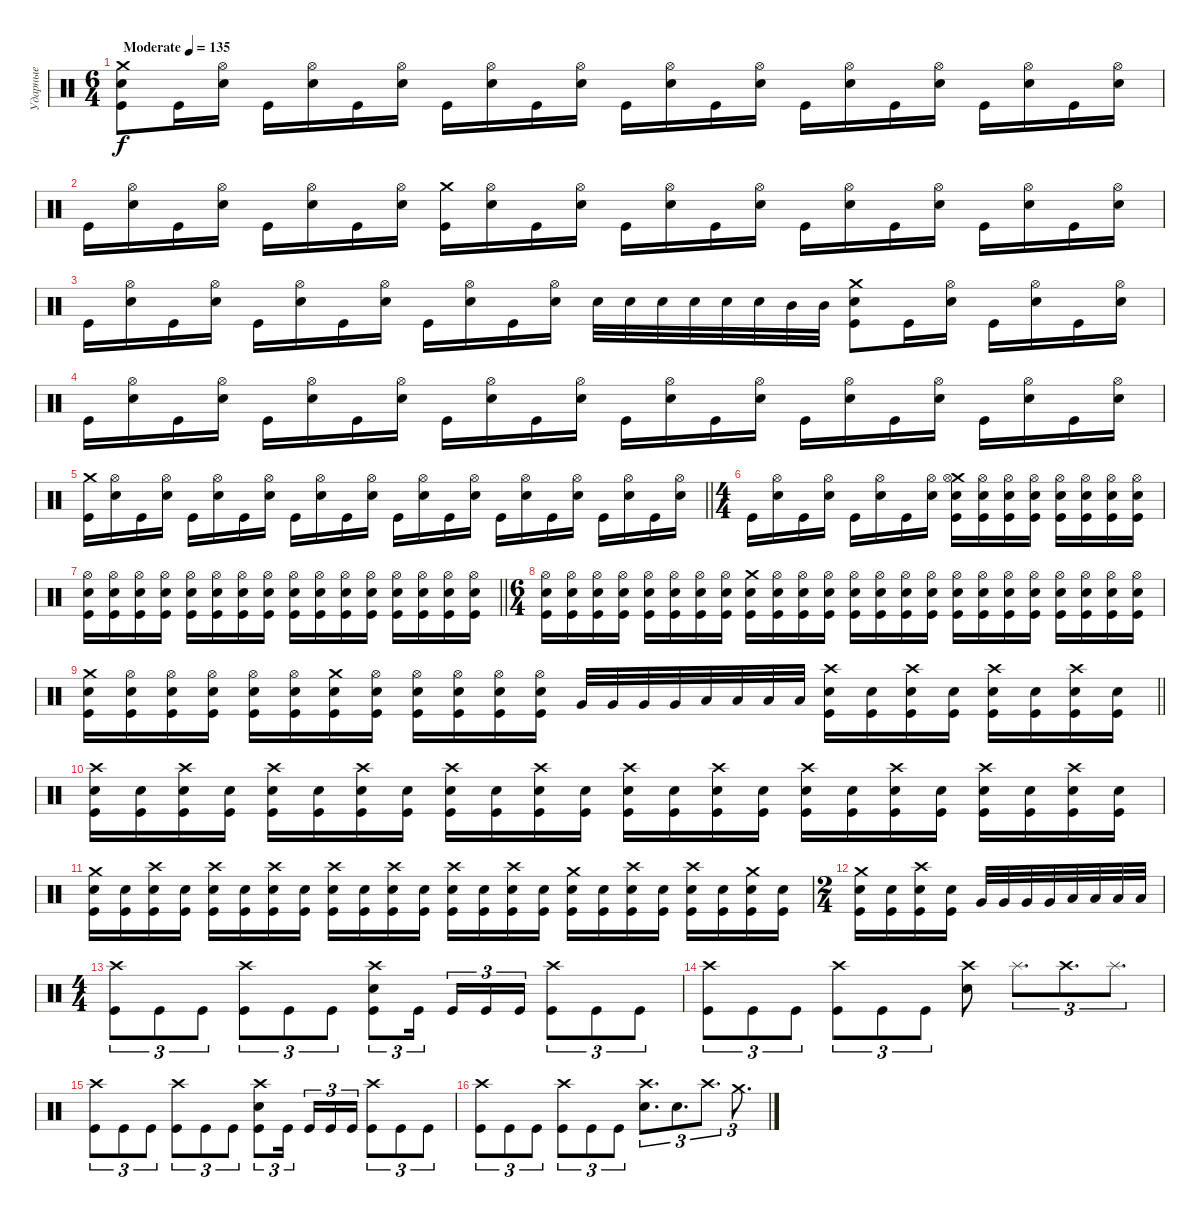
\track ("Ударные" "Ударные") {instrument percussion}
\staff {score}
\articulation defaults
\ts (6 4)
\tempo (135 "Moderate")
\clef neutral
\ks c
("Kick (hit)" "Snare (hit) 2" "Crash medium (hit)").8{dy f} "Kick (hit)".16 ("Hi-Hat (open)" "Snare (hit) 2").16 "Kick (hit)".16 ("Hi-Hat (open)" "Snare (hit) 2").16 "Kick (hit)".16 ("Hi-Hat (open)" "Snare (hit) 2").16 "Kick (hit)".16 ("Hi-Hat (open)" "Snare (hit) 2").16 "Kick (hit)".16 ("Hi-Hat (open)" "Snare (hit) 2").16 "Kick (hit)".16 ("Hi-Hat (open)" "Snare (hit) 2").16 "Kick (hit)".16 ("Hi-Hat (open)" "Snare (hit) 2").16 "Kick (hit)".16 ("Hi-Hat (open)" "Snare (hit) 2").16 "Kick (hit)".16 ("Hi-Hat (open)" "Snare (hit) 2").16 "Kick (hit)".16 ("Hi-Hat (open)" "Snare (hit) 2").16 "Kick (hit)".16 ("Hi-Hat (open)" "Snare (hit) 2").16 |
"Kick (hit)".16 ("Hi-Hat (open)" "Snare (hit) 2").16 "Kick (hit)".16 ("Hi-Hat (open)" "Snare (hit) 2").16 "Kick (hit)".16 ("Hi-Hat (open)" "Snare (hit) 2").16 "Kick (hit)".16 ("Hi-Hat (open)" "Snare (hit) 2").16 ("Crash medium (hit)" "Kick (hit)").16 ("Hi-Hat (open)" "Snare (hit) 2").16 "Kick (hit)".16 ("Hi-Hat (open)" "Snare (hit) 2").16 "Kick (hit)".16 ("Hi-Hat (open)" "Snare (hit) 2").16 "Kick (hit)".16 ("Hi-Hat (open)" "Snare (hit) 2").16 "Kick (hit)".16 ("Hi-Hat (open)" "Snare (hit) 2").16 "Kick (hit)".16 ("Hi-Hat (open)" "Snare (hit) 2").16 "Kick (hit)".16 ("Hi-Hat (open)" "Snare (hit) 2").16 "Kick (hit)".16 ("Hi-Hat (open)" "Snare (hit) 2").16 |
"Kick (hit)".16 ("Hi-Hat (open)" "Snare (hit) 2").16 "Kick (hit)".16 ("Hi-Hat (open)" "Snare (hit) 2").16 "Kick (hit)".16 ("Hi-Hat (open)" "Snare (hit) 2").16 "Kick (hit)".16 ("Hi-Hat (open)" "Snare (hit) 2").16 "Kick (hit)".16 ("Hi-Hat (open)" "Snare (hit) 2").16 "Kick (hit)".16 ("Hi-Hat (open)" "Snare (hit) 2").16 "Snare (hit) 2".32 "Snare (hit) 2".32 "Snare (hit) 2".32 "Snare (hit) 2".32 "Snare (hit) 2".32 "Snare (hit) 2".32 "Mid Tom (hit)".32 "Mid Tom (hit)".32 ("Kick (hit)" "Snare (hit) 2" "Crash medium (hit)").8 "Kick (hit)".16 ("Hi-Hat (open)" "Snare (hit) 2").16 "Kick (hit)".16 ("Hi-Hat (open)" "Snare (hit) 2").16 "Kick (hit)".16 ("Hi-Hat (open)" "Snare (hit) 2").16 |
"Kick (hit)".16 ("Hi-Hat (open)" "Snare (hit) 2").16 "Kick (hit)".16 ("Hi-Hat (open)" "Snare (hit) 2").16 "Kick (hit)".16 ("Hi-Hat (open)" "Snare (hit) 2").16 "Kick (hit)".16 ("Hi-Hat (open)" "Snare (hit) 2").16 "Kick (hit)".16 ("Hi-Hat (open)" "Snare (hit) 2").16 "Kick (hit)".16 ("Hi-Hat (open)" "Snare (hit) 2").16 "Kick (hit)".16 ("Hi-Hat (open)" "Snare (hit) 2").16 "Kick (hit)".16 ("Hi-Hat (open)" "Snare (hit) 2").16 "Kick (hit)".16 ("Hi-Hat (open)" "Snare (hit) 2").16 "Kick (hit)".16 ("Hi-Hat (open)" "Snare (hit) 2").16 "Kick (hit)".16 ("Hi-Hat (open)" "Snare (hit) 2").16 "Kick (hit)".16 ("Hi-Hat (open)" "Snare (hit) 2").16 |
\barLineRight lightlight
("Crash medium (hit)" "Kick (hit)").16 ("Hi-Hat (open)" "Snare (hit) 2").16 "Kick (hit)".16 ("Hi-Hat (open)" "Snare (hit) 2").16 "Kick (hit)".16 ("Hi-Hat (open)" "Snare (hit) 2").16 "Kick (hit)".16 ("Hi-Hat (open)" "Snare (hit) 2").16 "Kick (hit)".16 ("Hi-Hat (open)" "Snare (hit) 2").16 "Kick (hit)".16 ("Hi-Hat (open)" "Snare (hit) 2").16 "Kick (hit)".16 ("Hi-Hat (open)" "Snare (hit) 2").16 "Kick (hit)".16 ("Hi-Hat (open)" "Snare (hit) 2").16 "Kick (hit)".16 ("Hi-Hat (open)" "Snare (hit) 2").16 "Kick (hit)".16 ("Hi-Hat (open)" "Snare (hit) 2").16 "Kick (hit)".16 ("Hi-Hat (open)" "Snare (hit) 2").16 "Kick (hit)".16 ("Hi-Hat (open)" "Snare (hit) 2").16 |
\ts (4 4)
"Kick (hit)".16 ("Hi-Hat (open)" "Snare (hit) 2").16 "Kick (hit)".16 ("Hi-Hat (open)" "Snare (hit) 2").16 "Kick (hit)".16 ("Hi-Hat (open)" "Snare (hit) 2").16 "Kick (hit)".16 ("Hi-Hat (open)" "Snare (hit) 2").16 ("Crash medium (hit)" "Kick (hit)" "Snare (hit) 2" "Hi-Hat (open)").16 ("Kick (hit)" "Snare (hit) 2" "Hi-Hat (open)").16 ("Kick (hit)" "Snare (hit) 2" "Hi-Hat (open)").16 ("Kick (hit)" "Snare (hit) 2" "Hi-Hat (open)").16 ("Kick (hit)" "Snare (hit) 2" "Hi-Hat (open)").16 ("Kick (hit)" "Snare (hit) 2" "Hi-Hat (open)").16 ("Kick (hit)" "Snare (hit) 2" "Hi-Hat (open)").16 ("Kick (hit)" "Snare (hit) 2" "Hi-Hat (open)").16 |
\barLineRight lightlight
("Kick (hit)" "Snare (hit) 2" "Hi-Hat (open)").16 ("Kick (hit)" "Snare (hit) 2" "Hi-Hat (open)").16 ("Kick (hit)" "Snare (hit) 2" "Hi-Hat (open)").16 ("Kick (hit)" "Snare (hit) 2" "Hi-Hat (open)").16 ("Kick (hit)" "Snare (hit) 2" "Hi-Hat (open)").16 ("Kick (hit)" "Snare (hit) 2" "Hi-Hat (open)").16 ("Kick (hit)" "Snare (hit) 2" "Hi-Hat (open)").16 ("Kick (hit)" "Snare (hit) 2" "Hi-Hat (open)").16 ("Hi-Hat (open)" "Snare (hit) 2" "Kick (hit)").16 ("Hi-Hat (open)" "Snare (hit) 2" "Kick (hit)").16 ("Hi-Hat (open)" "Snare (hit) 2" "Kick (hit)").16 ("Hi-Hat (open)" "Snare (hit) 2" "Kick (hit)").16 ("Hi-Hat (open)" "Snare (hit) 2" "Kick (hit)").16 ("Hi-Hat (open)" "Snare (hit) 2" "Kick (hit)").16 ("Hi-Hat (open)" "Snare (hit) 2" "Kick (hit)").16 ("Hi-Hat (open)" "Snare (hit) 2" "Kick (hit)").16 |
\ts (6 4)
("Kick (hit)" "Snare (hit) 2" "Hi-Hat (open)").16 ("Kick (hit)" "Snare (hit) 2" "Hi-Hat (open)").16 ("Kick (hit)" "Snare (hit) 2" "Hi-Hat (open)").16 ("Kick (hit)" "Snare (hit) 2" "Hi-Hat (open)").16 ("Kick (hit)" "Snare (hit) 2" "Hi-Hat (open)").16 ("Kick (hit)" "Snare (hit) 2" "Hi-Hat (open)").16 ("Kick (hit)" "Snare (hit) 2" "Hi-Hat (open)").16 ("Kick (hit)" "Snare (hit) 2" "Hi-Hat (open)").16 ("Crash medium (hit)" "Snare (hit) 2" "Kick (hit)").16 ("Hi-Hat (open)" "Snare (hit) 2" "Kick (hit)").16 ("Hi-Hat (open)" "Snare (hit) 2" "Kick (hit)").16 ("Hi-Hat (open)" "Snare (hit) 2" "Kick (hit)").16 ("Hi-Hat (open)" "Snare (hit) 2" "Kick (hit)").16 ("Hi-Hat (open)" "Snare (hit) 2" "Kick (hit)").16 ("Hi-Hat (open)" "Snare (hit) 2" "Kick (hit)").16 ("Hi-Hat (open)" "Snare (hit) 2" "Kick (hit)").16 ("Hi-Hat (open)" "Snare (hit) 2" "Kick (hit)").16 ("Hi-Hat (open)" "Snare (hit) 2" "Kick (hit)").16 ("Hi-Hat (open)" "Snare (hit) 2" "Kick (hit)").16 ("Hi-Hat (open)" "Snare (hit) 2" "Kick (hit)").16 ("Hi-Hat (open)" "Snare (hit) 2" "Kick (hit)").16 ("Hi-Hat (open)" "Snare (hit) 2" "Kick (hit)").16 ("Hi-Hat (open)" "Snare (hit) 2" "Kick (hit)").16 ("Hi-Hat (open)" "Snare (hit) 2" "Kick (hit)").16 |
\barLineRight lightlight
("Kick (hit)" "Snare (hit) 2" "Crash medium (hit)").16 ("Kick (hit)" "Snare (hit) 2" "Hi-Hat (open)").16 ("Kick (hit)" "Snare (hit) 2" "Hi-Hat (open)").16 ("Kick (hit)" "Snare (hit) 2" "Hi-Hat (open)").16 ("Kick (hit)" "Snare (hit) 2" "Hi-Hat (open)").16 ("Kick (hit)" "Snare (hit) 2" "Hi-Hat (open)").16 ("Kick (hit)" "Snare (hit) 2" "Crash medium (hit)").16 ("Kick (hit)" "Snare (hit) 2" "Hi-Hat (open)").16 ("Hi-Hat (open)" "Snare (hit) 2" "Kick (hit)").16 ("Hi-Hat (open)" "Snare (hit) 2" "Kick (hit)").16 ("Hi-Hat (open)" "Snare (hit) 2" "Kick (hit)").16 ("Hi-Hat (open)" "Snare (hit) 2" "Kick (hit)").16 "Very Low Tom (hit)".32 "Very Low Tom (hit)".32 "Very Low Tom (hit)".32 "Very Low Tom (hit)".32 "Low Tom (hit)".32 "Low Tom (hit)".32 "Low Tom (hit)".32 "Low Tom (hit)".32 ("Snare (hit) 2" "Kick (hit)" "Crash high (hit)").16 ("Kick (hit)" "Snare (hit) 2").16 ("Kick (hit)" "Snare (hit) 2" "Crash high (hit)").16 ("Kick (hit)" "Snare (hit) 2").16 ("Kick (hit)" "Snare (hit) 2" "Crash high (hit)").16 ("Kick (hit)" "Snare (hit) 2").16 ("Kick (hit)" "Snare (hit) 2" "Crash high (hit)").16 ("Kick (hit)" "Snare (hit) 2").16 |
("Snare (hit) 2" "Kick (hit)" "Crash high (hit)").16 ("Kick (hit)" "Snare (hit) 2").16 ("Kick (hit)" "Snare (hit) 2" "Crash high (hit)").16 ("Kick (hit)" "Snare (hit) 2").16 ("Kick (hit)" "Snare (hit) 2" "Crash high (hit)").16 ("Kick (hit)" "Snare (hit) 2").16 ("Kick (hit)" "Snare (hit) 2" "Crash high (hit)").16 ("Kick (hit)" "Snare (hit) 2").16 ("Snare (hit) 2" "Kick (hit)" "Crash high (hit)").16 ("Kick (hit)" "Snare (hit) 2").16 ("Kick (hit)" "Snare (hit) 2" "Crash high (hit)").16 ("Kick (hit)" "Snare (hit) 2").16 ("Kick (hit)" "Snare (hit) 2" "Crash high (hit)").16 ("Kick (hit)" "Snare (hit) 2").16 ("Kick (hit)" "Snare (hit) 2" "Crash high (hit)").16 ("Kick (hit)" "Snare (hit) 2").16 ("Snare (hit) 2" "Kick (hit)" "Crash high (hit)").16 ("Kick (hit)" "Snare (hit) 2").16 ("Kick (hit)" "Snare (hit) 2" "Crash high (hit)").16 ("Kick (hit)" "Snare (hit) 2").16 ("Kick (hit)" "Snare (hit) 2" "Crash high (hit)").16 ("Kick (hit)" "Snare (hit) 2").16 ("Kick (hit)" "Snare (hit) 2" "Crash high (hit)").16 ("Kick (hit)" "Snare (hit) 2").16 |
("Snare (hit) 2" "Kick (hit)" "Crash medium (hit)").16 ("Kick (hit)" "Snare (hit) 2").16 ("Kick (hit)" "Snare (hit) 2" "Crash high (hit)").16 ("Kick (hit)" "Snare (hit) 2").16 ("Kick (hit)" "Snare (hit) 2" "Crash high (hit)").16 ("Kick (hit)" "Snare (hit) 2").16 ("Kick (hit)" "Snare (hit) 2" "Crash high (hit)").16 ("Kick (hit)" "Snare (hit) 2").16 ("Snare (hit) 2" "Kick (hit)" "Crash high (hit)").16 ("Kick (hit)" "Snare (hit) 2").16 ("Kick (hit)" "Snare (hit) 2" "Crash high (hit)").16 ("Kick (hit)" "Snare (hit) 2").16 ("Snare (hit) 2" "Kick (hit)" "Crash high (hit)").16 ("Kick (hit)" "Snare (hit) 2").16 ("Kick (hit)" "Snare (hit) 2" "Crash high (hit)").16 ("Kick (hit)" "Snare (hit) 2").16 ("Kick (hit)" "Snare (hit) 2" "Crash medium (hit)").16 ("Kick (hit)" "Snare (hit) 2").16 ("Kick (hit)" "Snare (hit) 2" "Crash high (hit)").16 ("Kick (hit)" "Snare (hit) 2").16 ("Snare (hit) 2" "Kick (hit)" "Crash high (hit)").16 ("Kick (hit)" "Snare (hit) 2").16 ("Kick (hit)" "Snare (hit) 2" "Crash medium (hit)").16 ("Kick (hit)" "Snare (hit) 2").16 |
\ts (2 4)
("Snare (hit) 2" "Kick (hit)" "Crash medium (hit)").16 ("Kick (hit)" "Snare (hit) 2").16 ("Kick (hit)" "Snare (hit) 2" "Crash high (hit)").16 ("Kick (hit)" "Snare (hit) 2").16 "Very Low Tom (hit)".32 "Very Low Tom (hit)".32 "Very Low Tom (hit)".32 "Very Low Tom (hit)".32 "Low Tom (hit)".32 "Low Tom (hit)".32 "Low Tom (hit)".32 "Low Tom (hit)".32 |
\ts (4 4)
("Crash high (hit)" "Kick (hit)").8{tu (3 2)} "Kick (hit)".8{tu (3 2)} "Kick (hit)".8{tu (3 2)} ("Crash high (hit)" "Kick (hit)").8{tu (3 2)} "Kick (hit)".8{tu (3 2)} "Kick (hit)".8{tu (3 2)} ("Crash high (hit)" "Snare (hit) 2" "Kick (hit)").8{tu (3 2)} "Kick (hit)".16{tu (3 2) beam splitsecondary} "Kick (hit)".16{tu (3 2)} "Kick (hit)".16{tu (3 2)} "Kick (hit)".16{tu (3 2)} ("Kick (hit)" "Crash high (hit)").8{tu (3 2)} "Kick (hit)".8{tu (3 2)} "Kick (hit)".8{tu (3 2)} |
("Crash high (hit)" "Kick (hit)").8{tu (3 2)} "Kick (hit)".8{tu (3 2)} "Kick (hit)".8{tu (3 2)} ("Crash high (hit)" "Kick (hit)").8{tu (3 2)} "Kick (hit)".8{tu (3 2)} "Kick (hit)".8{tu (3 2)} ("Crash high (hit)" "Snare (hit) 2").8 "Splash (hit)".8{d tu (3 2)} "Crash high (hit)".8{d tu (3 2)} "Splash (hit)".8{d tu (3 2)} |
("Crash high (hit)" "Kick (hit)").8{tu (3 2)} "Kick (hit)".8{tu (3 2)} "Kick (hit)".8{tu (3 2)} ("Crash high (hit)" "Kick (hit)").8{tu (3 2)} "Kick (hit)".8{tu (3 2)} "Kick (hit)".8{tu (3 2)} ("Crash high (hit)" "Snare (hit) 2" "Kick (hit)").8{tu (3 2)} "Kick (hit)".16{tu (3 2) beam splitsecondary} "Kick (hit)".16{tu (3 2)} "Kick (hit)".16{tu (3 2)} "Kick (hit)".16{tu (3 2)} ("Kick (hit)" "Crash high (hit)").8{tu (3 2)} "Kick (hit)".8{tu (3 2)} "Kick (hit)".8{tu (3 2)} |
("Crash high (hit)" "Kick (hit)").8{tu (3 2)} "Kick (hit)".8{tu (3 2)} "Kick (hit)".8{tu (3 2)} ("Crash high (hit)" "Kick (hit)").8{tu (3 2)} "Kick (hit)".8{tu (3 2)} "Kick (hit)".8{tu (3 2)} ("Crash high (hit)" "Snare (hit) 2").8{d tu (3 2)} "Snare (hit) 2".8{d tu (3 2)} "Crash high (hit)".8{d tu (3 2)} "Crash medium (hit)".8{d tu (3 2)}
